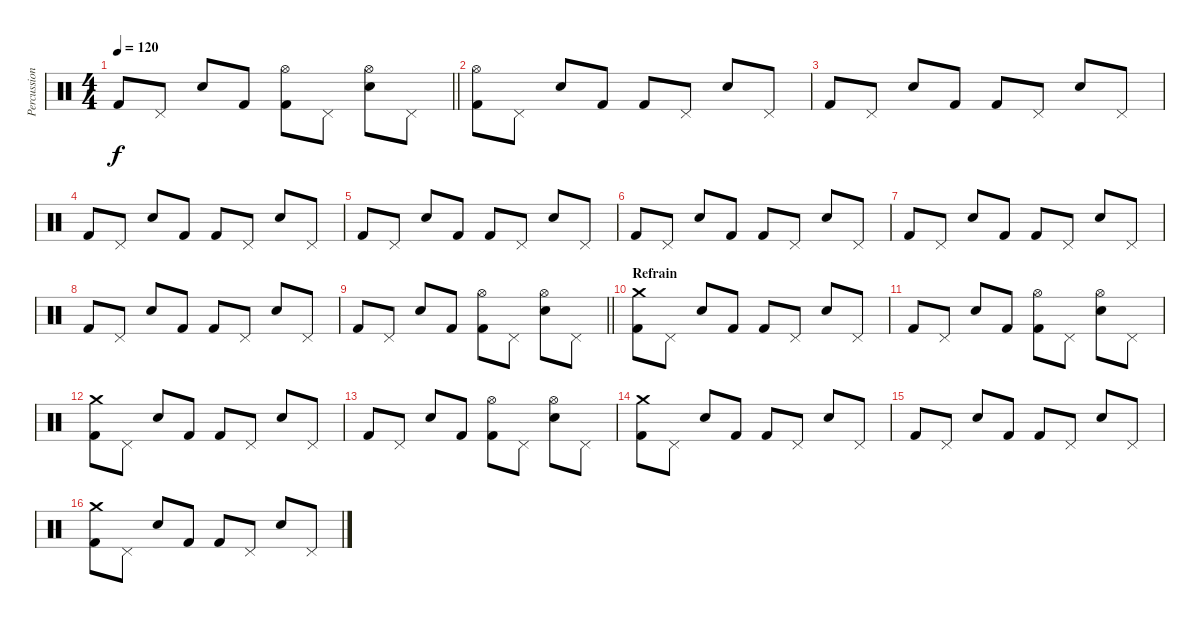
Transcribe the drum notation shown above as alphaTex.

\track ("Percussions" "Percussion") {instrument percussion}
\staff {score}
\articulation defaults
\ts (4 4)
\tempo 120
\clef neutral
\barLineRight lightlight
\ks c "Kick (hit) 2".8{dy f} "Pedal Hi-Hat (hit)".8 "Snare (hit) 2".8 "Kick (hit) 2".8
("Hi-Hat (open)" "Kick (hit) 2").8 "Pedal Hi-Hat (hit)".8 ("Hi-Hat (open)" "Snare (hit) 2").8 "Pedal Hi-Hat (hit)".8 |
("Hi-Hat (open)" "Kick (hit) 2").8 "Pedal Hi-Hat (hit)".8 "Snare (hit) 2".8 "Kick (hit) 2".8 "Kick (hit) 2".8 "Pedal Hi-Hat (hit)".8 "Snare (hit) 2".8 "Pedal Hi-Hat (hit)".8 |
"Kick (hit) 2".8 "Pedal Hi-Hat (hit)".8 "Snare (hit) 2".8 "Kick (hit) 2".8 "Kick (hit) 2".8 "Pedal Hi-Hat (hit)".8 "Snare (hit) 2".8 "Pedal Hi-Hat (hit)".8 |
"Kick (hit) 2".8 "Pedal Hi-Hat (hit)".8 "Snare (hit) 2".8 "Kick (hit) 2".8 "Kick (hit) 2".8 "Pedal Hi-Hat (hit)".8 "Snare (hit) 2".8 "Pedal Hi-Hat (hit)".8 |
"Kick (hit) 2".8 "Pedal Hi-Hat (hit)".8 "Snare (hit) 2".8 "Kick (hit) 2".8 "Kick (hit) 2".8 "Pedal Hi-Hat (hit)".8 "Snare (hit) 2".8 "Pedal Hi-Hat (hit)".8 |
"Kick (hit) 2".8 "Pedal Hi-Hat (hit)".8 "Snare (hit) 2".8 "Kick (hit) 2".8 "Kick (hit) 2".8 "Pedal Hi-Hat (hit)".8 "Snare (hit) 2".8 "Pedal Hi-Hat (hit)".8 |
"Kick (hit) 2".8 "Pedal Hi-Hat (hit)".8 "Snare (hit) 2".8 "Kick (hit) 2".8 "Kick (hit) 2".8 "Pedal Hi-Hat (hit)".8 "Snare (hit) 2".8 "Pedal Hi-Hat (hit)".8 |
"Kick (hit) 2".8 "Pedal Hi-Hat (hit)".8 "Snare (hit) 2".8 "Kick (hit) 2".8 "Kick (hit) 2".8 "Pedal Hi-Hat (hit)".8 "Snare (hit) 2".8 "Pedal Hi-Hat (hit)".8 |
\barLineRight lightlight "Kick (hit) 2".8 "Pedal Hi-Hat (hit)".8 "Snare (hit) 2".8 "Kick (hit) 2".8
("Hi-Hat (open)" "Kick (hit) 2").8 "Pedal Hi-Hat (hit)".8 ("Hi-Hat (open)" "Snare (hit) 2").8 "Pedal Hi-Hat (hit)".8 |
\section ("" "Refrain")
("Crash medium (hit)" "Kick (hit) 2").8 "Pedal Hi-Hat (hit)".8 "Snare (hit) 2".8 "Kick (hit) 2".8 "Kick (hit) 2".8 "Pedal Hi-Hat (hit)".8 "Snare (hit) 2".8 "Pedal Hi-Hat (hit)".8 |
"Kick (hit) 2".8 "Pedal Hi-Hat (hit)".8 "Snare (hit) 2".8 "Kick (hit) 2".8 ("Hi-Hat (open)" "Kick (hit) 2").8 "Pedal Hi-Hat (hit)".8 ("Hi-Hat (open)" "Snare (hit) 2").8 "Pedal Hi-Hat (hit)".8 |
("Crash medium (hit)" "Kick (hit) 2").8 "Pedal Hi-Hat (hit)".8 "Snare (hit) 2".8 "Kick (hit) 2".8 "Kick (hit) 2".8 "Pedal Hi-Hat (hit)".8 "Snare (hit) 2".8 "Pedal Hi-Hat (hit)".8 |
"Kick (hit) 2".8 "Pedal Hi-Hat (hit)".8 "Snare (hit) 2".8 "Kick (hit) 2".8 ("Hi-Hat (open)" "Kick (hit) 2").8 "Pedal Hi-Hat (hit)".8 ("Hi-Hat (open)" "Snare (hit) 2").8 "Pedal Hi-Hat (hit)".8 |
("Crash medium (hit)" "Kick (hit) 2").8 "Pedal Hi-Hat (hit)".8 "Snare (hit) 2".8 "Kick (hit) 2".8 "Kick (hit) 2".8 "Pedal Hi-Hat (hit)".8 "Snare (hit) 2".8 "Pedal Hi-Hat (hit)".8 |
"Kick (hit) 2".8 "Pedal Hi-Hat (hit)".8 "Snare (hit) 2".8 "Kick (hit) 2".8 "Kick (hit) 2".8 "Pedal Hi-Hat (hit)".8 "Snare (hit) 2".8 "Pedal Hi-Hat (hit)".8 |
("Crash medium (hit)" "Kick (hit) 2").8 "Pedal Hi-Hat (hit)".8 "Snare (hit) 2".8 "Kick (hit) 2".8 "Kick (hit) 2".8 "Pedal Hi-Hat (hit)".8 "Snare (hit) 2".8 "Pedal Hi-Hat (hit)".8
